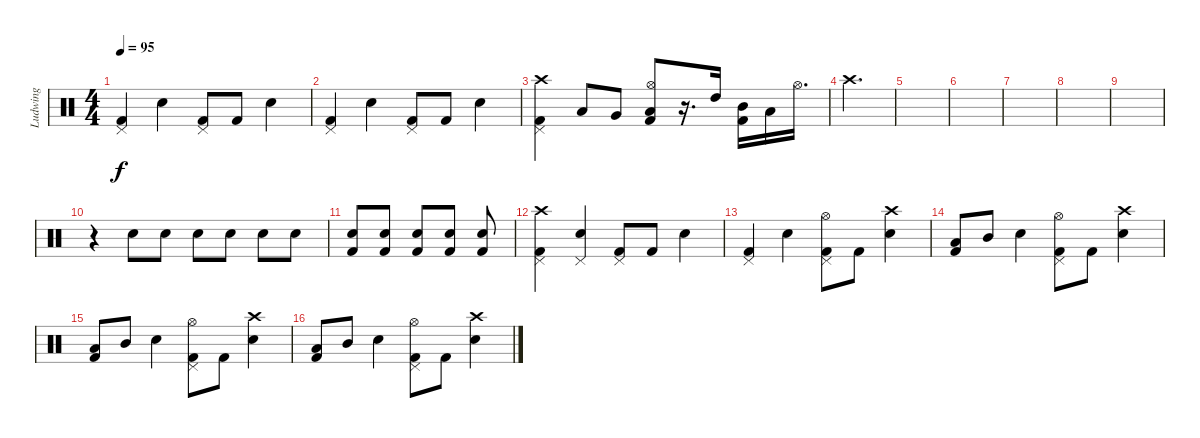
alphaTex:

\track ("Ludwing" "Ludwing") {instrument percussion}
\staff {score}
\articulation defaults
\ts (4 4)
\tempo 95
\clef neutral
\ks c
("Kick (hit) 2" "Pedal Hi-Hat (hit)").4{dy f} "Snare (hit) 2".4 ("Kick (hit) 2" "Pedal Hi-Hat (hit)").8 "Kick (hit) 2".8 "Snare (hit) 2".4 |
("Kick (hit) 2" "Pedal Hi-Hat (hit)").4 "Snare (hit) 2".4 ("Kick (hit) 2" "Pedal Hi-Hat (hit)").8 "Kick (hit) 2".8 "Snare (hit) 2".4 |
("Kick (hit) 2" "Pedal Hi-Hat (hit)" "Crash high (hit)").4 "Low Floor Tom (hit)".8 "Very Low Tom (hit)".8 ("Kick (hit) 2" "Hi-Hat (open)" "Low Tom (hit)").8 r.16{d} "High Tom (hit)".16 ("Kick (hit) 2" "Mid Tom (hit)").16 "Low Tom (hit)".16 "Hi-Hat (open)".16{d} |
"Crash high (hit)".4{d} |
|
|
|
|
|
r.4 "Snare (hit) 2".8 "Snare (hit) 2".8 "Snare (hit) 2".8 "Snare (hit) 2".8 "Snare (hit) 2".8 "Snare (hit) 2".8 |
("Snare (hit) 2" "Kick (hit) 2").8 ("Snare (hit) 2" "Kick (hit) 2").8 ("Snare (hit) 2" "Kick (hit) 2").8 ("Snare (hit) 2" "Kick (hit) 2").8 ("Snare (hit) 2" "Kick (hit) 2").8 |
("Kick (hit) 2" "Pedal Hi-Hat (hit)" "Crash high (hit)").4 ("Pedal Hi-Hat (hit)" "Snare (hit) 2").4 ("Kick (hit) 2" "Pedal Hi-Hat (hit)").8 "Kick (hit) 2".8 "Snare (hit) 2".4 |
("Kick (hit) 2" "Pedal Hi-Hat (hit)").4 "Snare (hit) 2".4 ("Kick (hit) 2" "Pedal Hi-Hat (hit)" "Hi-Hat (open)").8 "Kick (hit) 2".8 ("Snare (hit) 2" "Crash high (hit)").4 |
("Kick (hit) 2" "Low Tom (hit)").8 "Mid Tom (hit)".8 "Snare (hit) 2".4 ("Kick (hit) 2" "Pedal Hi-Hat (hit)" "Hi-Hat (open)").8 "Kick (hit) 2".8 ("Snare (hit) 2" "Crash high (hit)").4 |
("Kick (hit) 2" "Low Tom (hit)").8 "Mid Tom (hit)".8 "Snare (hit) 2".4 ("Kick (hit) 2" "Pedal Hi-Hat (hit)" "Hi-Hat (open)").8 "Kick (hit) 2".8 ("Snare (hit) 2" "Crash high (hit)").4 |
("Kick (hit) 2" "Low Tom (hit)").8 "Mid Tom (hit)".8 "Snare (hit) 2".4 ("Kick (hit) 2" "Pedal Hi-Hat (hit)" "Hi-Hat (open)").8 "Kick (hit) 2".8 ("Snare (hit) 2" "Crash high (hit)").4
